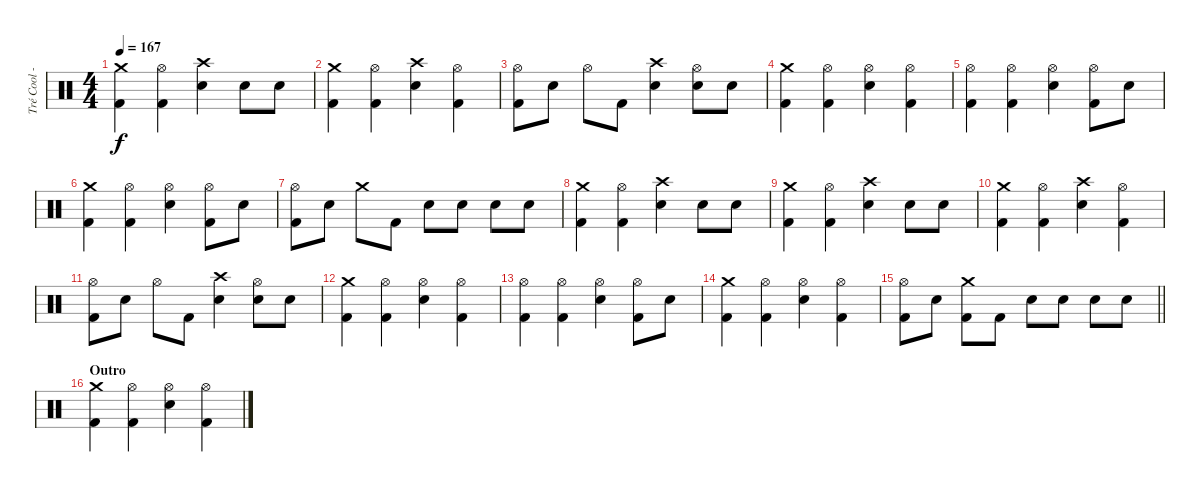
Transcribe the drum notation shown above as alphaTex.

\track ("Tré Cool - Drums" "Tré Cool -") {instrument percussion}
\staff {score}
\articulation defaults
\ts (4 4)
\tempo 167
\clef neutral
\ks c
("Crash medium (hit)" "Kick (hit) 2").4{dy f} ("Hi-Hat (open)" "Kick (hit) 2").4 ("Crash high (hit)" "Electric Snare (hit)").4 "Electric Snare (hit)".8 "Electric Snare (hit)".8 |
("Crash medium (hit)" "Kick (hit) 2").4 ("Hi-Hat (open)" "Kick (hit) 2").4 ("Crash high (hit)" "Electric Snare (hit)").4 ("Hi-Hat (open)" "Kick (hit) 2").4 |
("Hi-Hat (open)" "Kick (hit) 2").8 "Electric Snare (hit)".8 "Hi-Hat (open)".8 "Kick (hit) 2".8 ("Crash high (hit)" "Electric Snare (hit)").4 ("Hi-Hat (open)" "Electric Snare (hit)").8 "Electric Snare (hit)".8 |
("Crash medium (hit)" "Kick (hit) 2").4 ("Hi-Hat (open)" "Kick (hit) 2").4 ("Hi-Hat (open)" "Electric Snare (hit)").4 ("Hi-Hat (open)" "Kick (hit) 2").4 |
("Hi-Hat (open)" "Kick (hit) 2").4 ("Hi-Hat (open)" "Kick (hit) 2").4 ("Hi-Hat (open)" "Electric Snare (hit)").4 ("Hi-Hat (open)" "Kick (hit) 2").8 "Electric Snare (hit)".8 |
("Crash medium (hit)" "Kick (hit) 2").4 ("Hi-Hat (open)" "Kick (hit) 2").4 ("Hi-Hat (open)" "Electric Snare (hit)").4 ("Hi-Hat (open)" "Kick (hit) 2").8 "Electric Snare (hit)".8 |
("Hi-Hat (open)" "Kick (hit) 2").8 "Electric Snare (hit)".8 "Crash medium (hit)".8 "Kick (hit) 2".8 "Electric Snare (hit)".8 "Electric Snare (hit)".8 "Electric Snare (hit)".8 "Electric Snare (hit)".8 |
("Crash medium (hit)" "Kick (hit) 2").4 ("Hi-Hat (open)" "Kick (hit) 2").4 ("Crash high (hit)" "Electric Snare (hit)").4 "Electric Snare (hit)".8 "Electric Snare (hit)".8 |
("Crash medium (hit)" "Kick (hit) 2").4 ("Hi-Hat (open)" "Kick (hit) 2").4 ("Crash high (hit)" "Electric Snare (hit)").4 "Electric Snare (hit)".8 "Electric Snare (hit)".8 |
("Crash medium (hit)" "Kick (hit) 2").4 ("Hi-Hat (open)" "Kick (hit) 2").4 ("Crash high (hit)" "Electric Snare (hit)").4 ("Hi-Hat (open)" "Kick (hit) 2").4 |
("Hi-Hat (open)" "Kick (hit) 2").8 "Electric Snare (hit)".8 "Hi-Hat (open)".8 "Kick (hit) 2".8 ("Crash high (hit)" "Electric Snare (hit)").4 ("Hi-Hat (open)" "Electric Snare (hit)").8 "Electric Snare (hit)".8 |
("Crash medium (hit)" "Kick (hit) 2").4 ("Hi-Hat (open)" "Kick (hit) 2").4 ("Hi-Hat (open)" "Electric Snare (hit)").4 ("Hi-Hat (open)" "Kick (hit) 2").4 |
("Hi-Hat (open)" "Kick (hit) 2").4 ("Hi-Hat (open)" "Kick (hit) 2").4 ("Hi-Hat (open)" "Electric Snare (hit)").4 ("Hi-Hat (open)" "Kick (hit) 2").8 "Electric Snare (hit)".8 |
("Crash medium (hit)" "Kick (hit) 2").4 ("Hi-Hat (open)" "Kick (hit) 2").4 ("Hi-Hat (open)" "Electric Snare (hit)").4 ("Hi-Hat (open)" "Kick (hit) 2").4 |
\barLineRight lightlight
("Hi-Hat (open)" "Kick (hit) 2").8 "Electric Snare (hit)".8 ("Crash medium (hit)" "Kick (hit) 2").8 "Kick (hit) 2".8 "Electric Snare (hit)".8 "Electric Snare (hit)".8 "Electric Snare (hit)".8 "Electric Snare (hit)".8 |
\section ("" "Outro")
("Crash medium (hit)" "Kick (hit) 2").4 ("Hi-Hat (open)" "Kick (hit) 2").4 ("Hi-Hat (open)" "Electric Snare (hit)").4 ("Hi-Hat (open)" "Kick (hit) 2").4
